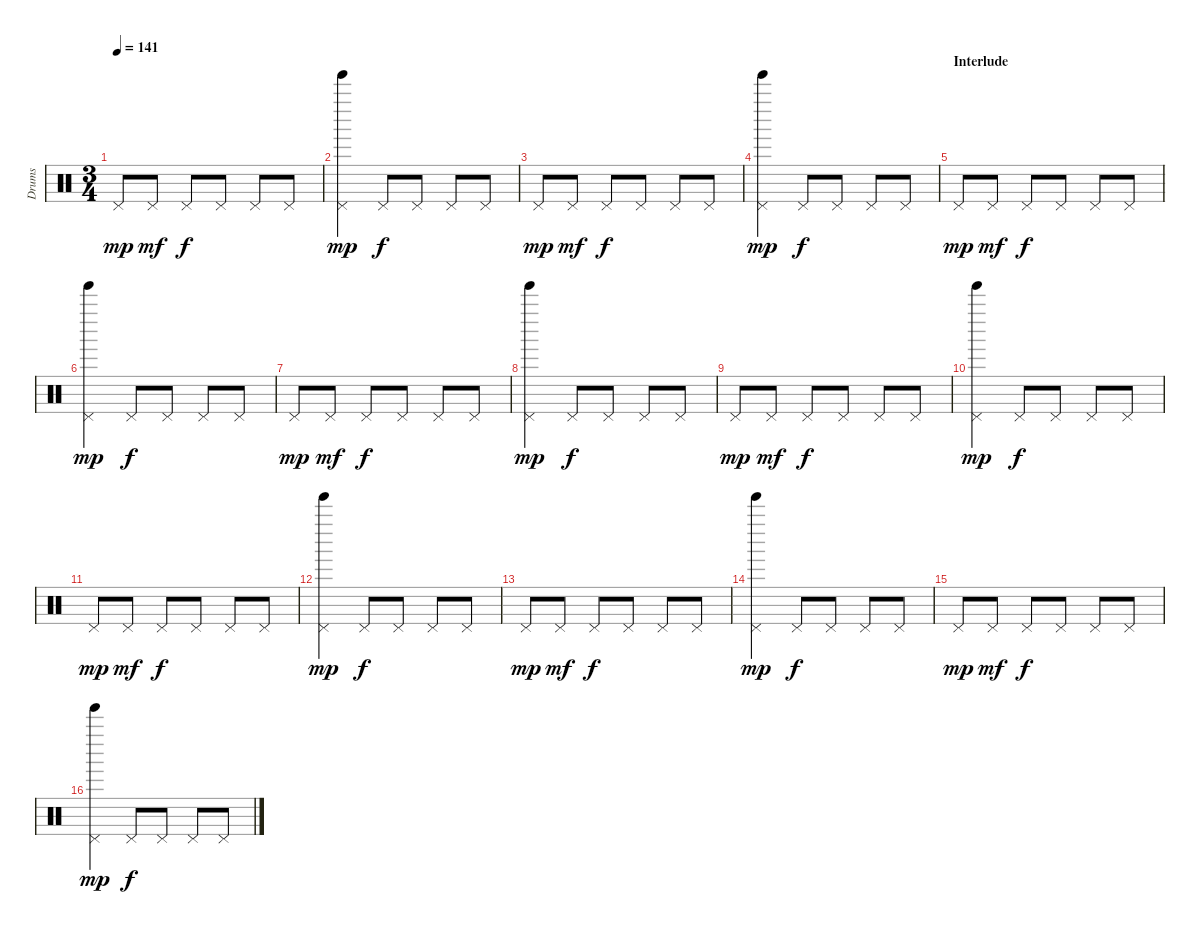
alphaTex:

\track ("Drums" "Drums") {instrument percussion}
\staff {score}
\articulation defaults
\ts (3 4)
\tempo 141
\clef neutral
\ks c "Pedal Hi-Hat (hit)".8{dy mp} "Pedal Hi-Hat (hit)".8{dy mf} "Pedal Hi-Hat (hit)".8{dy f} "Pedal Hi-Hat (hit)".8 "Pedal Hi-Hat (hit)".8 "Pedal Hi-Hat (hit)".8
|
("Pedal Hi-Hat (hit)" "Tinkle Bell (hit)").4{dy mp} "Pedal Hi-Hat (hit)".8{dy f} "Pedal Hi-Hat (hit)".8 "Pedal Hi-Hat (hit)".8 "Pedal Hi-Hat (hit)".8 |
"Pedal Hi-Hat (hit)".8{dy mp} "Pedal Hi-Hat (hit)".8{dy mf} "Pedal Hi-Hat (hit)".8{dy f} "Pedal Hi-Hat (hit)".8 "Pedal Hi-Hat (hit)".8 "Pedal Hi-Hat (hit)".8 |
("Pedal Hi-Hat (hit)" "Tinkle Bell (hit)").4{dy mp} "Pedal Hi-Hat (hit)".8{dy f} "Pedal Hi-Hat (hit)".8 "Pedal Hi-Hat (hit)".8 "Pedal Hi-Hat (hit)".8 |
\section ("" "Interlude")
"Pedal Hi-Hat (hit)".8{dy mp} "Pedal Hi-Hat (hit)".8{dy mf} "Pedal Hi-Hat (hit)".8{dy f} "Pedal Hi-Hat (hit)".8 "Pedal Hi-Hat (hit)".8 "Pedal Hi-Hat (hit)".8 |
("Pedal Hi-Hat (hit)" "Tinkle Bell (hit)").4{dy mp} "Pedal Hi-Hat (hit)".8{dy f} "Pedal Hi-Hat (hit)".8 "Pedal Hi-Hat (hit)".8 "Pedal Hi-Hat (hit)".8 |
"Pedal Hi-Hat (hit)".8{dy mp} "Pedal Hi-Hat (hit)".8{dy mf} "Pedal Hi-Hat (hit)".8{dy f} "Pedal Hi-Hat (hit)".8 "Pedal Hi-Hat (hit)".8 "Pedal Hi-Hat (hit)".8 |
("Pedal Hi-Hat (hit)" "Tinkle Bell (hit)").4{dy mp} "Pedal Hi-Hat (hit)".8{dy f} "Pedal Hi-Hat (hit)".8 "Pedal Hi-Hat (hit)".8 "Pedal Hi-Hat (hit)".8 |
"Pedal Hi-Hat (hit)".8{dy mp} "Pedal Hi-Hat (hit)".8{dy mf} "Pedal Hi-Hat (hit)".8{dy f} "Pedal Hi-Hat (hit)".8 "Pedal Hi-Hat (hit)".8 "Pedal Hi-Hat (hit)".8 |
("Pedal Hi-Hat (hit)" "Tinkle Bell (hit)").4{dy mp} "Pedal Hi-Hat (hit)".8{dy f} "Pedal Hi-Hat (hit)".8 "Pedal Hi-Hat (hit)".8 "Pedal Hi-Hat (hit)".8 |
"Pedal Hi-Hat (hit)".8{dy mp} "Pedal Hi-Hat (hit)".8{dy mf} "Pedal Hi-Hat (hit)".8{dy f} "Pedal Hi-Hat (hit)".8 "Pedal Hi-Hat (hit)".8 "Pedal Hi-Hat (hit)".8 |
("Pedal Hi-Hat (hit)" "Tinkle Bell (hit)").4{dy mp} "Pedal Hi-Hat (hit)".8{dy f} "Pedal Hi-Hat (hit)".8 "Pedal Hi-Hat (hit)".8 "Pedal Hi-Hat (hit)".8 |
"Pedal Hi-Hat (hit)".8{dy mp} "Pedal Hi-Hat (hit)".8{dy mf} "Pedal Hi-Hat (hit)".8{dy f} "Pedal Hi-Hat (hit)".8 "Pedal Hi-Hat (hit)".8 "Pedal Hi-Hat (hit)".8 |
("Pedal Hi-Hat (hit)" "Tinkle Bell (hit)").4{dy mp} "Pedal Hi-Hat (hit)".8{dy f} "Pedal Hi-Hat (hit)".8 "Pedal Hi-Hat (hit)".8 "Pedal Hi-Hat (hit)".8 |
"Pedal Hi-Hat (hit)".8{dy mp} "Pedal Hi-Hat (hit)".8{dy mf} "Pedal Hi-Hat (hit)".8{dy f} "Pedal Hi-Hat (hit)".8 "Pedal Hi-Hat (hit)".8 "Pedal Hi-Hat (hit)".8 |
("Pedal Hi-Hat (hit)" "Tinkle Bell (hit)").4{dy mp} "Pedal Hi-Hat (hit)".8{dy f} "Pedal Hi-Hat (hit)".8 "Pedal Hi-Hat (hit)".8 "Pedal Hi-Hat (hit)".8
